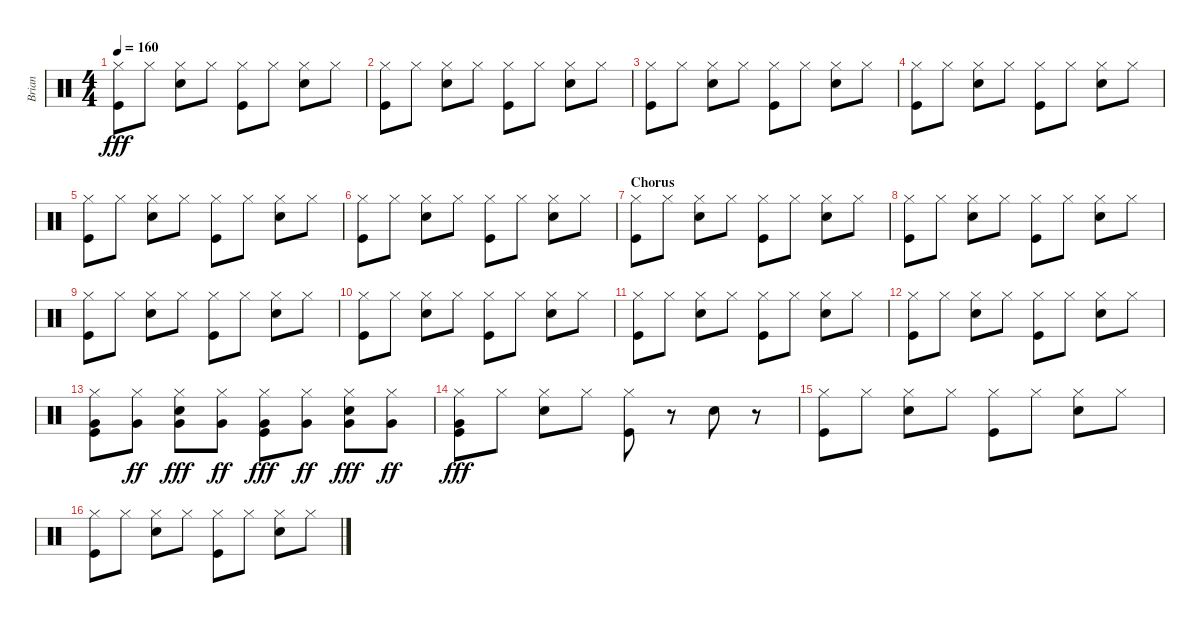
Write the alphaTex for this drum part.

\track ("Brian" "Brian") {instrument percussion}
\staff {score}
\articulation defaults
\ts (4 4)
\tempo 160
\clef neutral
\ks c
("Hi-Hat (closed)" "Kick (hit)").8{dy fff} "Hi-Hat (closed)".8 ("Hi-Hat (closed)" "Electric Snare (hit)").8 "Hi-Hat (closed)".8 ("Hi-Hat (closed)" "Kick (hit)").8 "Hi-Hat (closed)".8 ("Hi-Hat (closed)" "Electric Snare (hit)").8 "Hi-Hat (closed)".8 |
("Hi-Hat (closed)" "Kick (hit)").8 "Hi-Hat (closed)".8 ("Hi-Hat (closed)" "Electric Snare (hit)").8 "Hi-Hat (closed)".8 ("Hi-Hat (closed)" "Kick (hit)").8 "Hi-Hat (closed)".8 ("Hi-Hat (closed)" "Electric Snare (hit)").8 "Hi-Hat (closed)".8 |
("Hi-Hat (closed)" "Kick (hit)").8 "Hi-Hat (closed)".8 ("Hi-Hat (closed)" "Electric Snare (hit)").8 "Hi-Hat (closed)".8 ("Hi-Hat (closed)" "Kick (hit)").8 "Hi-Hat (closed)".8 ("Hi-Hat (closed)" "Electric Snare (hit)").8 "Hi-Hat (closed)".8 |
("Hi-Hat (closed)" "Kick (hit)").8 "Hi-Hat (closed)".8 ("Hi-Hat (closed)" "Electric Snare (hit)").8 "Hi-Hat (closed)".8 ("Hi-Hat (closed)" "Kick (hit)").8 "Hi-Hat (closed)".8 ("Hi-Hat (closed)" "Electric Snare (hit)").8 "Hi-Hat (closed)".8 |
("Hi-Hat (closed)" "Kick (hit)").8 "Hi-Hat (closed)".8 ("Hi-Hat (closed)" "Electric Snare (hit)").8 "Hi-Hat (closed)".8 ("Hi-Hat (closed)" "Kick (hit)").8 "Hi-Hat (closed)".8 ("Hi-Hat (closed)" "Electric Snare (hit)").8 "Hi-Hat (closed)".8 |
("Hi-Hat (closed)" "Kick (hit)").8 "Hi-Hat (closed)".8 ("Hi-Hat (closed)" "Electric Snare (hit)").8 "Hi-Hat (closed)".8 ("Hi-Hat (closed)" "Kick (hit)").8 "Hi-Hat (closed)".8 ("Hi-Hat (closed)" "Electric Snare (hit)").8 "Hi-Hat (closed)".8 |
\section ("" "Chorus")
("Hi-Hat (closed)" "Kick (hit)").8 "Hi-Hat (closed)".8 ("Hi-Hat (closed)" "Electric Snare (hit)").8 "Hi-Hat (closed)".8 ("Hi-Hat (closed)" "Kick (hit)").8 "Hi-Hat (closed)".8 ("Hi-Hat (closed)" "Electric Snare (hit)").8 "Hi-Hat (closed)".8 |
("Hi-Hat (closed)" "Kick (hit)").8 "Hi-Hat (closed)".8 ("Hi-Hat (closed)" "Electric Snare (hit)").8 "Hi-Hat (closed)".8 ("Hi-Hat (closed)" "Kick (hit)").8 "Hi-Hat (closed)".8 ("Hi-Hat (closed)" "Electric Snare (hit)").8 "Hi-Hat (closed)".8 |
("Hi-Hat (closed)" "Kick (hit)").8 "Hi-Hat (closed)".8 ("Hi-Hat (closed)" "Electric Snare (hit)").8 "Hi-Hat (closed)".8 ("Hi-Hat (closed)" "Kick (hit)").8 "Hi-Hat (closed)".8 ("Hi-Hat (closed)" "Electric Snare (hit)").8 "Hi-Hat (closed)".8 |
("Hi-Hat (closed)" "Kick (hit)").8 "Hi-Hat (closed)".8 ("Hi-Hat (closed)" "Electric Snare (hit)").8 "Hi-Hat (closed)".8 ("Hi-Hat (closed)" "Kick (hit)").8 "Hi-Hat (closed)".8 ("Hi-Hat (closed)" "Electric Snare (hit)").8 "Hi-Hat (closed)".8 |
("Hi-Hat (closed)" "Kick (hit)").8 "Hi-Hat (closed)".8 ("Hi-Hat (closed)" "Electric Snare (hit)").8 "Hi-Hat (closed)".8 ("Hi-Hat (closed)" "Kick (hit)").8 "Hi-Hat (closed)".8 ("Hi-Hat (closed)" "Electric Snare (hit)").8 "Hi-Hat (closed)".8 |
("Hi-Hat (closed)" "Kick (hit)").8 "Hi-Hat (closed)".8 ("Hi-Hat (closed)" "Electric Snare (hit)").8 "Hi-Hat (closed)".8 ("Hi-Hat (closed)" "Kick (hit)").8 "Hi-Hat (closed)".8 ("Hi-Hat (closed)" "Electric Snare (hit)").8 "Hi-Hat (closed)".8 |
("Hi-Hat (closed)" "Very Low Tom (hit)" "Kick (hit)").8 ("Hi-Hat (closed)" "Very Low Tom (hit)").8{dy ff} ("Hi-Hat (closed)" "Very Low Tom (hit)" "Electric Snare (hit)").8{dy fff} ("Hi-Hat (closed)" "Very Low Tom (hit)").8{dy ff} ("Hi-Hat (closed)" "Very Low Tom (hit)" "Kick (hit)").8{dy fff} ("Hi-Hat (closed)" "Very Low Tom (hit)").8{dy ff} ("Hi-Hat (closed)" "Very Low Tom (hit)" "Electric Snare (hit)").8{dy fff} ("Hi-Hat (closed)" "Very Low Tom (hit)").8{dy ff} |
("Hi-Hat (closed)" "Very Low Tom (hit)" "Kick (hit)").8{dy fff} "Hi-Hat (closed)".8 ("Hi-Hat (closed)" "Electric Snare (hit)").8 "Hi-Hat (closed)".8 ("Hi-Hat (closed)" "Kick (hit)").8 r.8 "Electric Snare (hit)".8 r.8 |
("Hi-Hat (closed)" "Kick (hit)").8 "Hi-Hat (closed)".8 ("Hi-Hat (closed)" "Electric Snare (hit)").8 "Hi-Hat (closed)".8 ("Hi-Hat (closed)" "Kick (hit)").8 "Hi-Hat (closed)".8 ("Hi-Hat (closed)" "Electric Snare (hit)").8 "Hi-Hat (closed)".8 |
("Hi-Hat (closed)" "Kick (hit)").8 "Hi-Hat (closed)".8 ("Hi-Hat (closed)" "Electric Snare (hit)").8 "Hi-Hat (closed)".8 ("Hi-Hat (closed)" "Kick (hit)").8 "Hi-Hat (closed)".8 ("Hi-Hat (closed)" "Electric Snare (hit)").8 "Hi-Hat (closed)".8
